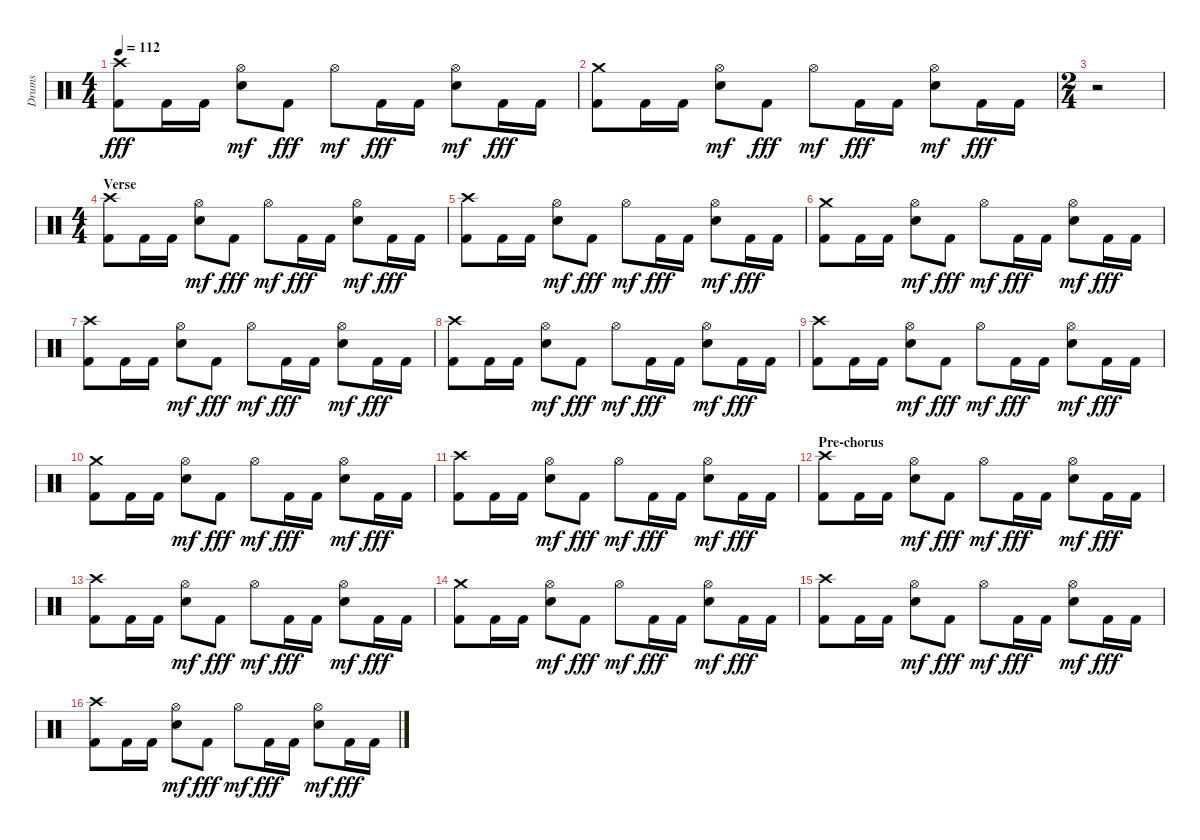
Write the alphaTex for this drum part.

\track ("Drums" "Drums") {instrument percussion}
\staff {score}
\articulation defaults
\ts (4 4)
\tempo 112
\clef neutral
\ks c
("Crash high (hit)" "Kick (hit) 2").8{dy fff} "Kick (hit) 2".16 "Kick (hit) 2".16 ("Electric Snare (hit)" "Hi-Hat (open)").8{dy mf} "Kick (hit) 2".8{dy fff} "Hi-Hat (open)".8{dy mf} "Kick (hit) 2".16{dy fff} "Kick (hit) 2".16 ("Electric Snare (hit)" "Hi-Hat (open)").8{dy mf} "Kick (hit) 2".16{dy fff} "Kick (hit) 2".16 |
("Crash medium (hit)" "Kick (hit) 2").8 "Kick (hit) 2".16 "Kick (hit) 2".16 ("Electric Snare (hit)" "Hi-Hat (open)").8{dy mf} "Kick (hit) 2".8{dy fff} "Hi-Hat (open)".8{dy mf} "Kick (hit) 2".16{dy fff} "Kick (hit) 2".16 ("Electric Snare (hit)" "Hi-Hat (open)").8{dy mf} "Kick (hit) 2".16{dy fff} "Kick (hit) 2".16 |
\ts (2 4)
r.2 |
\ts (4 4)
\section ("" "Verse")
("Crash high (hit)" "Kick (hit) 2").8 "Kick (hit) 2".16 "Kick (hit) 2".16 ("Electric Snare (hit)" "Hi-Hat (open)").8{dy mf} "Kick (hit) 2".8{dy fff} "Hi-Hat (open)".8{dy mf} "Kick (hit) 2".16{dy fff} "Kick (hit) 2".16 ("Electric Snare (hit)" "Hi-Hat (open)").8{dy mf} "Kick (hit) 2".16{dy fff} "Kick (hit) 2".16 |
("Crash high (hit)" "Kick (hit) 2").8 "Kick (hit) 2".16 "Kick (hit) 2".16 ("Electric Snare (hit)" "Hi-Hat (open)").8{dy mf} "Kick (hit) 2".8{dy fff} "Hi-Hat (open)".8{dy mf} "Kick (hit) 2".16{dy fff} "Kick (hit) 2".16 ("Electric Snare (hit)" "Hi-Hat (open)").8{dy mf} "Kick (hit) 2".16{dy fff} "Kick (hit) 2".16 |
("Crash medium (hit)" "Kick (hit) 2").8 "Kick (hit) 2".16 "Kick (hit) 2".16 ("Electric Snare (hit)" "Hi-Hat (open)").8{dy mf} "Kick (hit) 2".8{dy fff} "Hi-Hat (open)".8{dy mf} "Kick (hit) 2".16{dy fff} "Kick (hit) 2".16 ("Electric Snare (hit)" "Hi-Hat (open)").8{dy mf} "Kick (hit) 2".16{dy fff} "Kick (hit) 2".16 |
("Crash high (hit)" "Kick (hit) 2").8 "Kick (hit) 2".16 "Kick (hit) 2".16 ("Electric Snare (hit)" "Hi-Hat (open)").8{dy mf} "Kick (hit) 2".8{dy fff} "Hi-Hat (open)".8{dy mf} "Kick (hit) 2".16{dy fff} "Kick (hit) 2".16 ("Electric Snare (hit)" "Hi-Hat (open)").8{dy mf} "Kick (hit) 2".16{dy fff} "Kick (hit) 2".16 |
("Crash high (hit)" "Kick (hit) 2").8 "Kick (hit) 2".16 "Kick (hit) 2".16 ("Electric Snare (hit)" "Hi-Hat (open)").8{dy mf} "Kick (hit) 2".8{dy fff} "Hi-Hat (open)".8{dy mf} "Kick (hit) 2".16{dy fff} "Kick (hit) 2".16 ("Electric Snare (hit)" "Hi-Hat (open)").8{dy mf} "Kick (hit) 2".16{dy fff} "Kick (hit) 2".16 |
("Crash high (hit)" "Kick (hit) 2").8 "Kick (hit) 2".16 "Kick (hit) 2".16 ("Electric Snare (hit)" "Hi-Hat (open)").8{dy mf} "Kick (hit) 2".8{dy fff} "Hi-Hat (open)".8{dy mf} "Kick (hit) 2".16{dy fff} "Kick (hit) 2".16 ("Electric Snare (hit)" "Hi-Hat (open)").8{dy mf} "Kick (hit) 2".16{dy fff} "Kick (hit) 2".16 |
("Crash medium (hit)" "Kick (hit) 2").8 "Kick (hit) 2".16 "Kick (hit) 2".16 ("Electric Snare (hit)" "Hi-Hat (open)").8{dy mf} "Kick (hit) 2".8{dy fff} "Hi-Hat (open)".8{dy mf} "Kick (hit) 2".16{dy fff} "Kick (hit) 2".16 ("Electric Snare (hit)" "Hi-Hat (open)").8{dy mf} "Kick (hit) 2".16{dy fff} "Kick (hit) 2".16 |
("Crash high (hit)" "Kick (hit) 2").8 "Kick (hit) 2".16 "Kick (hit) 2".16 ("Electric Snare (hit)" "Hi-Hat (open)").8{dy mf} "Kick (hit) 2".8{dy fff} "Hi-Hat (open)".8{dy mf} "Kick (hit) 2".16{dy fff} "Kick (hit) 2".16 ("Electric Snare (hit)" "Hi-Hat (open)").8{dy mf} "Kick (hit) 2".16{dy fff} "Kick (hit) 2".16 |
\section ("" "Pre-chorus ")
("Crash high (hit)" "Kick (hit) 2").8 "Kick (hit) 2".16 "Kick (hit) 2".16 ("Electric Snare (hit)" "Hi-Hat (open)").8{dy mf} "Kick (hit) 2".8{dy fff} "Hi-Hat (open)".8{dy mf} "Kick (hit) 2".16{dy fff} "Kick (hit) 2".16 ("Electric Snare (hit)" "Hi-Hat (open)").8{dy mf} "Kick (hit) 2".16{dy fff} "Kick (hit) 2".16 |
("Crash high (hit)" "Kick (hit) 2").8 "Kick (hit) 2".16 "Kick (hit) 2".16 ("Electric Snare (hit)" "Hi-Hat (open)").8{dy mf} "Kick (hit) 2".8{dy fff} "Hi-Hat (open)".8{dy mf} "Kick (hit) 2".16{dy fff} "Kick (hit) 2".16 ("Electric Snare (hit)" "Hi-Hat (open)").8{dy mf} "Kick (hit) 2".16{dy fff} "Kick (hit) 2".16 |
("Crash medium (hit)" "Kick (hit) 2").8 "Kick (hit) 2".16 "Kick (hit) 2".16 ("Electric Snare (hit)" "Hi-Hat (open)").8{dy mf} "Kick (hit) 2".8{dy fff} "Hi-Hat (open)".8{dy mf} "Kick (hit) 2".16{dy fff} "Kick (hit) 2".16 ("Electric Snare (hit)" "Hi-Hat (open)").8{dy mf} "Kick (hit) 2".16{dy fff} "Kick (hit) 2".16 |
("Crash high (hit)" "Kick (hit) 2").8 "Kick (hit) 2".16 "Kick (hit) 2".16 ("Electric Snare (hit)" "Hi-Hat (open)").8{dy mf} "Kick (hit) 2".8{dy fff} "Hi-Hat (open)".8{dy mf} "Kick (hit) 2".16{dy fff} "Kick (hit) 2".16 ("Electric Snare (hit)" "Hi-Hat (open)").8{dy mf} "Kick (hit) 2".16{dy fff} "Kick (hit) 2".16 |
("Crash high (hit)" "Kick (hit) 2").8 "Kick (hit) 2".16 "Kick (hit) 2".16 ("Electric Snare (hit)" "Hi-Hat (open)").8{dy mf} "Kick (hit) 2".8{dy fff} "Hi-Hat (open)".8{dy mf} "Kick (hit) 2".16{dy fff} "Kick (hit) 2".16 ("Electric Snare (hit)" "Hi-Hat (open)").8{dy mf} "Kick (hit) 2".16{dy fff} "Kick (hit) 2".16
